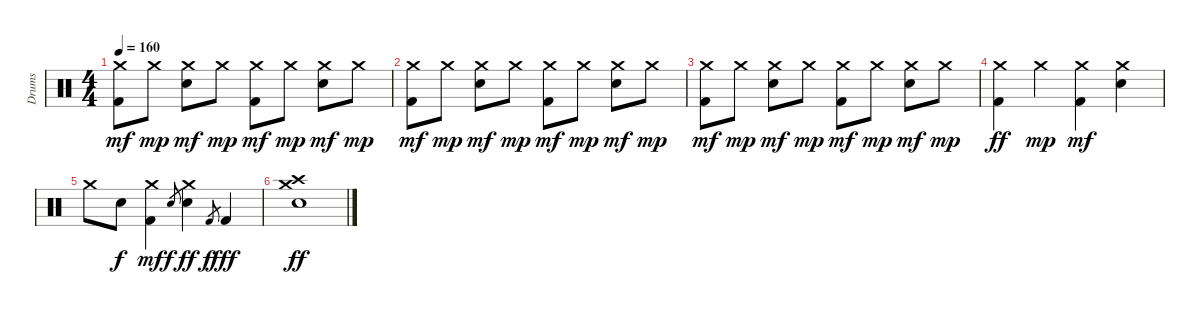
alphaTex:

\track ("Drums" "Drums") {instrument percussion}
\staff {score}
\articulation defaults
\ts (4 4)
\tempo 160
\clef neutral
\ks c
("Crash medium (hit)" "Kick (hit) 2").8{dy mf} "Crash medium (hit)".8{dy mp} ("Crash medium (hit)" "Snare (hit) 2").8{dy mf} "Crash medium (hit)".8{dy mp} ("Crash medium (hit)" "Kick (hit) 2").8{dy mf} "Crash medium (hit)".8{dy mp} ("Crash medium (hit)" "Snare (hit) 2").8{dy mf} "Crash medium (hit)".8{dy mp} |
("Crash medium (hit)" "Kick (hit) 2").8{dy mf} "Crash medium (hit)".8{dy mp} ("Crash medium (hit)" "Snare (hit) 2").8{dy mf} "Crash medium (hit)".8{dy mp} ("Crash medium (hit)" "Kick (hit) 2").8{dy mf} "Crash medium (hit)".8{dy mp} ("Crash medium (hit)" "Snare (hit) 2").8{dy mf} "Crash medium (hit)".8{dy mp} |
("Crash medium (hit)" "Kick (hit) 2").8{dy mf} "Crash medium (hit)".8{dy mp} ("Crash medium (hit)" "Snare (hit) 2").8{dy mf} "Crash medium (hit)".8{dy mp} ("Crash medium (hit)" "Kick (hit) 2").8{dy mf} "Crash medium (hit)".8{dy mp} ("Crash medium (hit)" "Snare (hit) 2").8{dy mf} "Crash medium (hit)".8{dy mp} |
("Crash medium (hit)" "Kick (hit) 2").4{dy ff} "Crash medium (hit)".4{dy mp} ("Crash medium (hit)" "Kick (hit) 2").4{dy mf} ("Crash medium (hit)" "Snare (hit) 2").4 |
"Crash medium (hit)".8 "Snare (hit) 2".8{dy f} ("Crash medium (hit)" "Kick (hit) 2").4{dy mf} "Snare (hit) 2".8{gr dy f} ("Crash medium (hit)" "Snare (hit) 2").4{dy ff} "Kick (hit) 2".8{gr dy f} "Kick (hit) 2".4{dy fff} |
("Crash medium (hit)" "Crash high (hit)" "Snare (hit) 2").1{dy ff}
